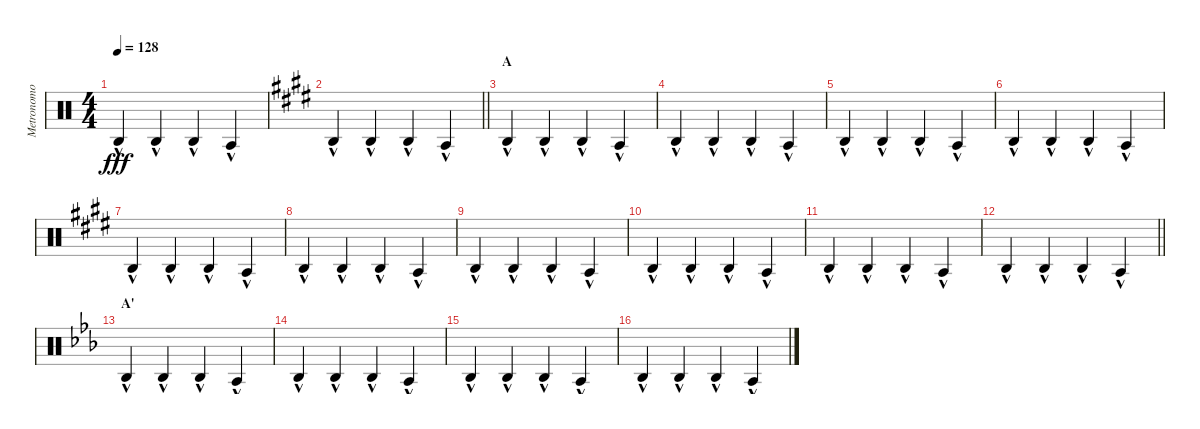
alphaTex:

\track ("Metronomo" "Metronomo") {mute instrument percussion}
\staff {score}
\articulation defaults
\ts (4 4)
\tempo 128
\clef neutral
\ks c "Agogo high (hit)"{hac}.4{dy fff} "Agogo high (hit)"{hac}.4 "Agogo high (hit)"{hac}.4 "Agogo tow (hit)"{hac}.4
|
\barLineRight lightlight
\ks e "Agogo high (hit)"{hac}.4 "Agogo high (hit)"{hac}.4 "Agogo high (hit)"{hac}.4 "Agogo tow (hit)"{hac}.4
|
\section ("" "A")
"Agogo high (hit)"{hac}.4 "Agogo high (hit)"{hac}.4 "Agogo high (hit)"{hac}.4 "Agogo tow (hit)"{hac}.4 |
"Agogo high (hit)"{hac}.4 "Agogo high (hit)"{hac}.4 "Agogo high (hit)"{hac}.4 "Agogo tow (hit)"{hac}.4 |
"Agogo high (hit)"{hac}.4 "Agogo high (hit)"{hac}.4 "Agogo high (hit)"{hac}.4 "Agogo tow (hit)"{hac}.4 |
"Agogo high (hit)"{hac}.4 "Agogo high (hit)"{hac}.4 "Agogo high (hit)"{hac}.4 "Agogo tow (hit)"{hac}.4 |
"Agogo high (hit)"{hac}.4 "Agogo high (hit)"{hac}.4 "Agogo high (hit)"{hac}.4 "Agogo tow (hit)"{hac}.4 |
"Agogo high (hit)"{hac}.4 "Agogo high (hit)"{hac}.4 "Agogo high (hit)"{hac}.4 "Agogo tow (hit)"{hac}.4 |
"Agogo high (hit)"{hac}.4 "Agogo high (hit)"{hac}.4 "Agogo high (hit)"{hac}.4 "Agogo tow (hit)"{hac}.4 |
"Agogo high (hit)"{hac}.4 "Agogo high (hit)"{hac}.4 "Agogo high (hit)"{hac}.4 "Agogo tow (hit)"{hac}.4 |
"Agogo high (hit)"{hac}.4 "Agogo high (hit)"{hac}.4 "Agogo high (hit)"{hac}.4 "Agogo tow (hit)"{hac}.4 |
\barLineRight lightlight "Agogo high (hit)"{hac}.4 "Agogo high (hit)"{hac}.4 "Agogo high (hit)"{hac}.4 "Agogo tow (hit)"{hac}.4
|
\section ("" "A'")
\ks eb "Agogo high (hit)"{hac}.4 "Agogo high (hit)"{hac}.4 "Agogo high (hit)"{hac}.4 "Agogo tow (hit)"{hac}.4
|
"Agogo high (hit)"{hac}.4 "Agogo high (hit)"{hac}.4 "Agogo high (hit)"{hac}.4 "Agogo tow (hit)"{hac}.4 |
"Agogo high (hit)"{hac}.4 "Agogo high (hit)"{hac}.4 "Agogo high (hit)"{hac}.4 "Agogo tow (hit)"{hac}.4 |
"Agogo high (hit)"{hac}.4 "Agogo high (hit)"{hac}.4 "Agogo high (hit)"{hac}.4 "Agogo tow (hit)"{hac}.4
